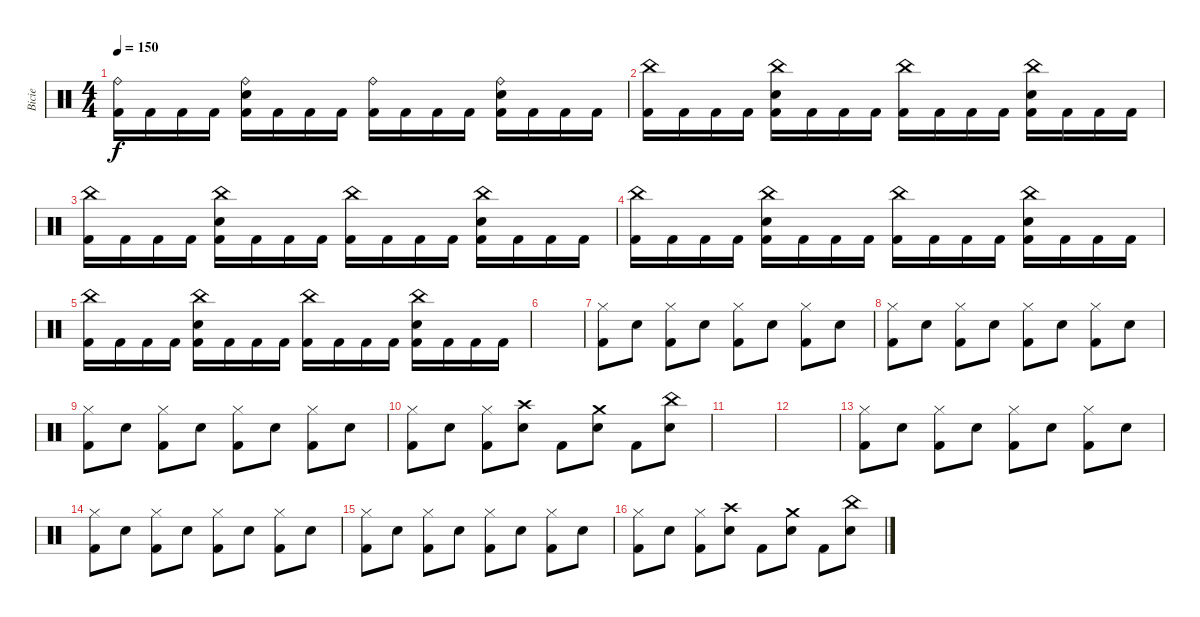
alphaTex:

\track ("Bicie" "Bicie") {instrument percussion}
\staff {score}
\articulation defaults
\ts (4 4)
\tempo 150
\clef neutral
\ks c
("Ride (bell)" "Kick (hit) 2").16{dy f} "Kick (hit) 2".16 "Kick (hit) 2".16 "Kick (hit) 2".16 ("Ride (bell)" "Snare (hit) 2" "Kick (hit) 2").16 "Kick (hit) 2".16 "Kick (hit) 2".16 "Kick (hit) 2".16 ("Ride (bell)" "Kick (hit) 2").16 "Kick (hit) 2".16 "Kick (hit) 2".16 "Kick (hit) 2".16 ("Ride (bell)" "Snare (hit) 2" "Kick (hit) 2").16 "Kick (hit) 2".16 "Kick (hit) 2".16 "Kick (hit) 2".16 |
("China (hit)" "Kick (hit) 2").16 "Kick (hit) 2".16 "Kick (hit) 2".16 "Kick (hit) 2".16 ("China (hit)" "Snare (hit) 2" "Kick (hit) 2").16 "Kick (hit) 2".16 "Kick (hit) 2".16 "Kick (hit) 2".16 ("China (hit)" "Kick (hit) 2").16 "Kick (hit) 2".16 "Kick (hit) 2".16 "Kick (hit) 2".16 ("China (hit)" "Snare (hit) 2" "Kick (hit) 2").16 "Kick (hit) 2".16 "Kick (hit) 2".16 "Kick (hit) 2".16 |
("China (hit)" "Kick (hit) 2").16 "Kick (hit) 2".16 "Kick (hit) 2".16 "Kick (hit) 2".16 ("China (hit)" "Snare (hit) 2" "Kick (hit) 2").16 "Kick (hit) 2".16 "Kick (hit) 2".16 "Kick (hit) 2".16 ("China (hit)" "Kick (hit) 2").16 "Kick (hit) 2".16 "Kick (hit) 2".16 "Kick (hit) 2".16 ("China (hit)" "Snare (hit) 2" "Kick (hit) 2").16 "Kick (hit) 2".16 "Kick (hit) 2".16 "Kick (hit) 2".16 |
("China (hit)" "Kick (hit) 2").16 "Kick (hit) 2".16 "Kick (hit) 2".16 "Kick (hit) 2".16 ("China (hit)" "Snare (hit) 2" "Kick (hit) 2").16 "Kick (hit) 2".16 "Kick (hit) 2".16 "Kick (hit) 2".16 ("China (hit)" "Kick (hit) 2").16 "Kick (hit) 2".16 "Kick (hit) 2".16 "Kick (hit) 2".16 ("China (hit)" "Snare (hit) 2" "Kick (hit) 2").16 "Kick (hit) 2".16 "Kick (hit) 2".16 "Kick (hit) 2".16 |
("China (hit)" "Kick (hit) 2").16 "Kick (hit) 2".16 "Kick (hit) 2".16 "Kick (hit) 2".16 ("China (hit)" "Snare (hit) 2" "Kick (hit) 2").16 "Kick (hit) 2".16 "Kick (hit) 2".16 "Kick (hit) 2".16 ("China (hit)" "Kick (hit) 2").16 "Kick (hit) 2".16 "Kick (hit) 2".16 "Kick (hit) 2".16 ("China (hit)" "Snare (hit) 2" "Kick (hit) 2").16 "Kick (hit) 2".16 "Kick (hit) 2".16 "Kick (hit) 2".16 |
|
("Hi-Hat (closed)" "Kick (hit) 2").8 "Snare (hit) 2".8 ("Hi-Hat (closed)" "Kick (hit) 2").8 "Snare (hit) 2".8 ("Hi-Hat (closed)" "Kick (hit) 2").8 "Snare (hit) 2".8 ("Hi-Hat (closed)" "Kick (hit) 2").8 "Snare (hit) 2".8 |
("Hi-Hat (closed)" "Kick (hit) 2").8 "Snare (hit) 2".8 ("Hi-Hat (closed)" "Kick (hit) 2").8 "Snare (hit) 2".8 ("Hi-Hat (closed)" "Kick (hit) 2").8 "Snare (hit) 2".8 ("Hi-Hat (closed)" "Kick (hit) 2").8 "Snare (hit) 2".8 |
("Hi-Hat (closed)" "Kick (hit) 2").8 "Snare (hit) 2".8 ("Hi-Hat (closed)" "Kick (hit) 2").8 "Snare (hit) 2".8 ("Hi-Hat (closed)" "Kick (hit) 2").8 "Snare (hit) 2".8 ("Hi-Hat (closed)" "Kick (hit) 2").8 "Snare (hit) 2".8 |
("Hi-Hat (closed)" "Kick (hit) 2").8 "Snare (hit) 2".8 ("Hi-Hat (closed)" "Kick (hit) 2").8 ("Crash high (hit)" "Snare (hit) 2").8 "Kick (hit) 2".8 ("Crash medium (hit)" "Snare (hit) 2").8 "Kick (hit) 2".8 ("China (hit)" "Snare (hit) 2").8 |
|
|
("Hi-Hat (closed)" "Kick (hit) 2").8 "Snare (hit) 2".8 ("Hi-Hat (closed)" "Kick (hit) 2").8 "Snare (hit) 2".8 ("Hi-Hat (closed)" "Kick (hit) 2").8 "Snare (hit) 2".8 ("Hi-Hat (closed)" "Kick (hit) 2").8 "Snare (hit) 2".8 |
("Hi-Hat (closed)" "Kick (hit) 2").8 "Snare (hit) 2".8 ("Hi-Hat (closed)" "Kick (hit) 2").8 "Snare (hit) 2".8 ("Hi-Hat (closed)" "Kick (hit) 2").8 "Snare (hit) 2".8 ("Hi-Hat (closed)" "Kick (hit) 2").8 "Snare (hit) 2".8 |
("Hi-Hat (closed)" "Kick (hit) 2").8 "Snare (hit) 2".8 ("Hi-Hat (closed)" "Kick (hit) 2").8 "Snare (hit) 2".8 ("Hi-Hat (closed)" "Kick (hit) 2").8 "Snare (hit) 2".8 ("Hi-Hat (closed)" "Kick (hit) 2").8 "Snare (hit) 2".8 |
("Hi-Hat (closed)" "Kick (hit) 2").8 "Snare (hit) 2".8 ("Hi-Hat (closed)" "Kick (hit) 2").8 ("Crash high (hit)" "Snare (hit) 2").8 "Kick (hit) 2".8 ("Crash medium (hit)" "Snare (hit) 2").8 "Kick (hit) 2".8 ("China (hit)" "Snare (hit) 2").8
